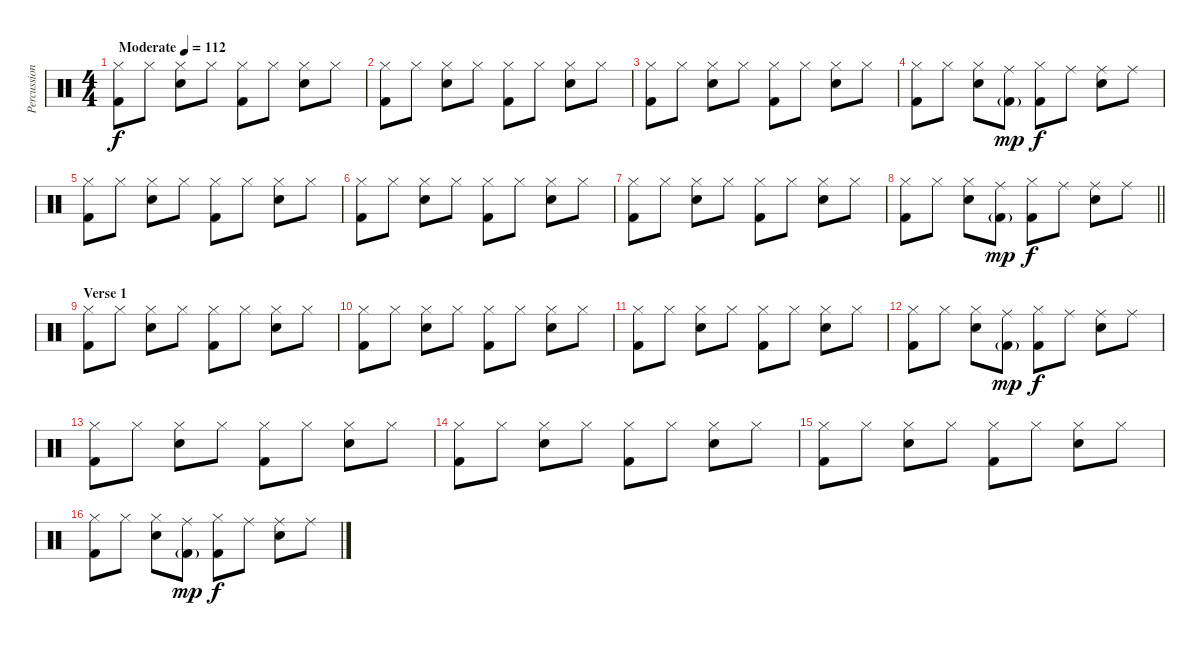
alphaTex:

\track ("Percussion" "Percussion") {instrument percussion}
\staff {score}
\articulation defaults
\ts (4 4)
\tempo (112 "Moderate")
\clef neutral
\ks c
("Hi-Hat (closed)" "Kick (hit) 2").8{dy f} "Hi-Hat (closed)".8 ("Hi-Hat (closed)" "Snare (hit) 2").8 "Hi-Hat (closed)".8 ("Hi-Hat (closed)" "Kick (hit) 2").8 "Hi-Hat (closed)".8 ("Hi-Hat (closed)" "Snare (hit) 2").8 "Hi-Hat (closed)".8 |
("Hi-Hat (closed)" "Kick (hit) 2").8 "Hi-Hat (closed)".8 ("Hi-Hat (closed)" "Snare (hit) 2").8 "Hi-Hat (closed)".8 ("Hi-Hat (closed)" "Kick (hit) 2").8 "Hi-Hat (closed)".8 ("Hi-Hat (closed)" "Snare (hit) 2").8 "Hi-Hat (closed)".8 |
("Hi-Hat (closed)" "Kick (hit) 2").8 "Hi-Hat (closed)".8 ("Hi-Hat (closed)" "Snare (hit) 2").8 "Hi-Hat (closed)".8 ("Hi-Hat (closed)" "Kick (hit) 2").8 "Hi-Hat (closed)".8 ("Hi-Hat (closed)" "Snare (hit) 2").8 "Hi-Hat (closed)".8 |
("Hi-Hat (closed)" "Kick (hit) 2").8 "Hi-Hat (closed)".8 ("Hi-Hat (closed)" "Snare (hit) 2").8 ("Ride (middle)" "Kick (hit) 2"{g}).8{dy mp} ("Hi-Hat (closed)" "Kick (hit) 2").8{dy f} "Ride (middle)".8 ("Ride (middle)" "Snare (hit) 2").8 "Ride (middle)".8 |
("Hi-Hat (closed)" "Kick (hit) 2").8 "Hi-Hat (closed)".8 ("Hi-Hat (closed)" "Snare (hit) 2").8 "Hi-Hat (closed)".8 ("Hi-Hat (closed)" "Kick (hit) 2").8 "Hi-Hat (closed)".8 ("Hi-Hat (closed)" "Snare (hit) 2").8 "Hi-Hat (closed)".8 |
("Hi-Hat (closed)" "Kick (hit) 2").8 "Hi-Hat (closed)".8 ("Hi-Hat (closed)" "Snare (hit) 2").8 "Hi-Hat (closed)".8 ("Hi-Hat (closed)" "Kick (hit) 2").8 "Hi-Hat (closed)".8 ("Hi-Hat (closed)" "Snare (hit) 2").8 "Hi-Hat (closed)".8 |
("Hi-Hat (closed)" "Kick (hit) 2").8 "Hi-Hat (closed)".8 ("Hi-Hat (closed)" "Snare (hit) 2").8 "Hi-Hat (closed)".8 ("Hi-Hat (closed)" "Kick (hit) 2").8 "Hi-Hat (closed)".8 ("Hi-Hat (closed)" "Snare (hit) 2").8 "Hi-Hat (closed)".8 |
\barLineRight lightlight
("Hi-Hat (closed)" "Kick (hit) 2").8 "Hi-Hat (closed)".8 ("Hi-Hat (closed)" "Snare (hit) 2").8 ("Ride (middle)" "Kick (hit) 2"{g}).8{dy mp} ("Hi-Hat (closed)" "Kick (hit) 2").8{dy f} "Ride (middle)".8 ("Ride (middle)" "Snare (hit) 2").8 "Ride (middle)".8 |
\section ("" "Verse 1")
("Hi-Hat (closed)" "Kick (hit) 2").8 "Hi-Hat (closed)".8 ("Hi-Hat (closed)" "Snare (hit) 2").8 "Hi-Hat (closed)".8 ("Hi-Hat (closed)" "Kick (hit) 2").8 "Hi-Hat (closed)".8 ("Hi-Hat (closed)" "Snare (hit) 2").8 "Hi-Hat (closed)".8 |
("Hi-Hat (closed)" "Kick (hit) 2").8 "Hi-Hat (closed)".8 ("Hi-Hat (closed)" "Snare (hit) 2").8 "Hi-Hat (closed)".8 ("Hi-Hat (closed)" "Kick (hit) 2").8 "Hi-Hat (closed)".8 ("Hi-Hat (closed)" "Snare (hit) 2").8 "Hi-Hat (closed)".8 |
("Hi-Hat (closed)" "Kick (hit) 2").8 "Hi-Hat (closed)".8 ("Hi-Hat (closed)" "Snare (hit) 2").8 "Hi-Hat (closed)".8 ("Hi-Hat (closed)" "Kick (hit) 2").8 "Hi-Hat (closed)".8 ("Hi-Hat (closed)" "Snare (hit) 2").8 "Hi-Hat (closed)".8 |
("Hi-Hat (closed)" "Kick (hit) 2").8 "Hi-Hat (closed)".8 ("Hi-Hat (closed)" "Snare (hit) 2").8 ("Ride (middle)" "Kick (hit) 2"{g}).8{dy mp} ("Hi-Hat (closed)" "Kick (hit) 2").8{dy f} "Ride (middle)".8 ("Ride (middle)" "Snare (hit) 2").8 "Ride (middle)".8 |
("Hi-Hat (closed)" "Kick (hit) 2").8 "Hi-Hat (closed)".8 ("Hi-Hat (closed)" "Snare (hit) 2").8 "Hi-Hat (closed)".8 ("Hi-Hat (closed)" "Kick (hit) 2").8 "Hi-Hat (closed)".8 ("Hi-Hat (closed)" "Snare (hit) 2").8 "Hi-Hat (closed)".8 |
("Hi-Hat (closed)" "Kick (hit) 2").8 "Hi-Hat (closed)".8 ("Hi-Hat (closed)" "Snare (hit) 2").8 "Hi-Hat (closed)".8 ("Hi-Hat (closed)" "Kick (hit) 2").8 "Hi-Hat (closed)".8 ("Hi-Hat (closed)" "Snare (hit) 2").8 "Hi-Hat (closed)".8 |
("Hi-Hat (closed)" "Kick (hit) 2").8 "Hi-Hat (closed)".8 ("Hi-Hat (closed)" "Snare (hit) 2").8 "Hi-Hat (closed)".8 ("Hi-Hat (closed)" "Kick (hit) 2").8 "Hi-Hat (closed)".8 ("Hi-Hat (closed)" "Snare (hit) 2").8 "Hi-Hat (closed)".8 |
("Hi-Hat (closed)" "Kick (hit) 2").8 "Hi-Hat (closed)".8 ("Hi-Hat (closed)" "Snare (hit) 2").8 ("Ride (middle)" "Kick (hit) 2"{g}).8{dy mp} ("Hi-Hat (closed)" "Kick (hit) 2").8{dy f} "Ride (middle)".8 ("Ride (middle)" "Snare (hit) 2").8 "Ride (middle)".8
